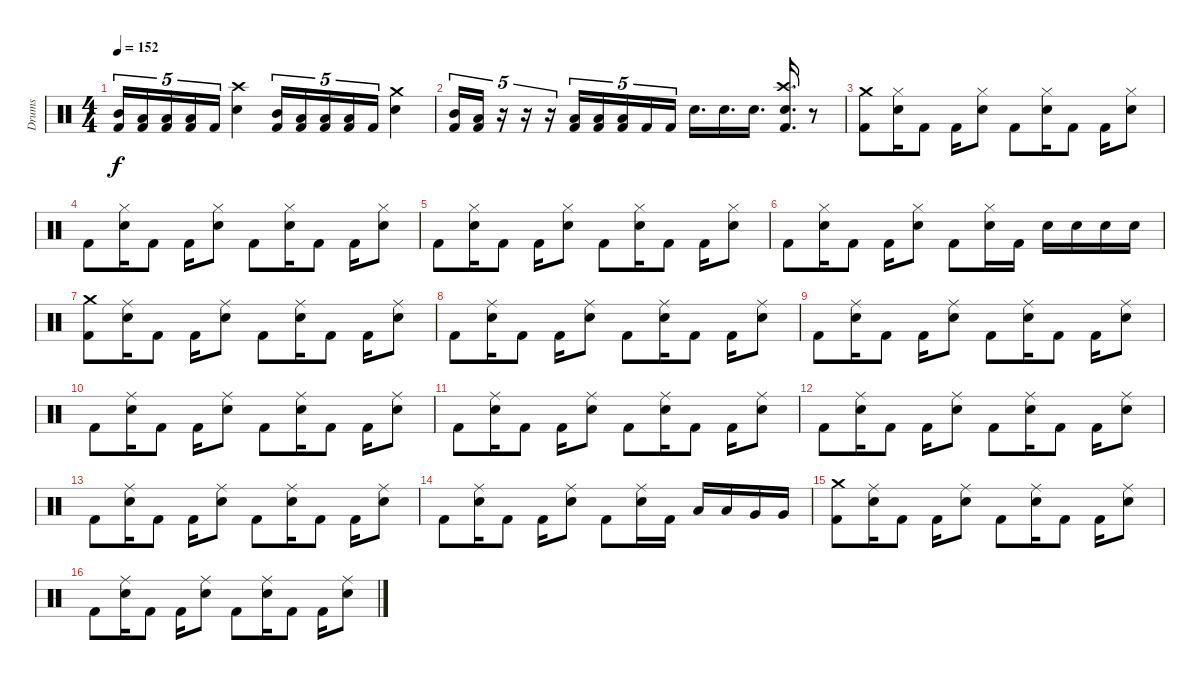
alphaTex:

\track ("Drums" "Drums") {instrument percussion}
\staff {score}
\articulation defaults
\ts (4 4)
\tempo 152
\clef neutral
\ks c
("Mid Tom (hit)" "Kick (hit) 2").16{tu (5 4) dy f} ("Low Tom (hit)" "Kick (hit) 2").16{tu (5 4)} ("Low Tom (hit)" "Kick (hit) 2").16{tu (5 4)} ("Low Tom (hit)" "Kick (hit) 2").16{tu (5 4)} "Kick (hit) 2".16{tu (5 4)} ("Crash high (hit)" "Snare (hit) 2").4 ("Mid Tom (hit)" "Kick (hit) 2").16{tu (5 4)} ("Low Tom (hit)" "Kick (hit) 2").16{tu (5 4)} ("Low Tom (hit)" "Kick (hit) 2").16{tu (5 4)} ("Low Tom (hit)" "Kick (hit) 2").16{tu (5 4)} "Kick (hit) 2".16{tu (5 4)} ("Crash medium (hit)" "Snare (hit) 2").4 |
("Mid Tom (hit)" "Kick (hit) 2").16{tu (5 4)} ("Low Tom (hit)" "Kick (hit) 2").16{tu (5 4)} r.16{tu (5 4)} r.16{tu (5 4)} r.16{tu (5 4)} ("Low Tom (hit)" "Kick (hit) 2").16{tu (5 4)} ("Low Tom (hit)" "Kick (hit) 2").16{tu (5 4)} ("Low Tom (hit)" "Kick (hit) 2").16{tu (5 4)} "Kick (hit) 2".16{tu (5 4)} "Kick (hit) 2".16{tu (5 4)} "Snare (hit) 2".16{d} "Snare (hit) 2".16{d} "Snare (hit) 2".16{d} ("Crash high (hit)" "Snare (hit) 2" "Kick (hit) 2").16{d} r.8 |
("Crash medium (hit)" "Kick (hit) 2").8 ("Hi-Hat (closed)" "Snare (hit) 2").16 "Kick (hit) 2".8 "Kick (hit) 2".16 ("Hi-Hat (closed)" "Snare (hit) 2").8 "Kick (hit) 2".8 ("Hi-Hat (closed)" "Snare (hit) 2").16 "Kick (hit) 2".8 "Kick (hit) 2".16 ("Hi-Hat (closed)" "Snare (hit) 2").8 |
"Kick (hit) 2".8 ("Hi-Hat (closed)" "Snare (hit) 2").16 "Kick (hit) 2".8 "Kick (hit) 2".16 ("Hi-Hat (closed)" "Snare (hit) 2").8 "Kick (hit) 2".8 ("Hi-Hat (closed)" "Snare (hit) 2").16 "Kick (hit) 2".8 "Kick (hit) 2".16 ("Hi-Hat (closed)" "Snare (hit) 2").8 |
"Kick (hit) 2".8 ("Hi-Hat (closed)" "Snare (hit) 2").16 "Kick (hit) 2".8 "Kick (hit) 2".16 ("Hi-Hat (closed)" "Snare (hit) 2").8 "Kick (hit) 2".8 ("Hi-Hat (closed)" "Snare (hit) 2").16 "Kick (hit) 2".8 "Kick (hit) 2".16 ("Hi-Hat (closed)" "Snare (hit) 2").8 |
"Kick (hit) 2".8 ("Hi-Hat (closed)" "Snare (hit) 2").16 "Kick (hit) 2".8 "Kick (hit) 2".16 ("Hi-Hat (closed)" "Snare (hit) 2").8 "Kick (hit) 2".8 ("Hi-Hat (closed)" "Snare (hit) 2").16 "Kick (hit) 2".16 "Snare (hit) 2".16 "Snare (hit) 2".16 "Snare (hit) 2".16 "Snare (hit) 2".16 |
("Crash medium (hit)" "Kick (hit) 2").8 ("Ride (middle)" "Snare (hit) 2").16 "Kick (hit) 2".8 "Kick (hit) 2".16 ("Ride (middle)" "Snare (hit) 2").8 "Kick (hit) 2".8 ("Ride (middle)" "Snare (hit) 2").16 "Kick (hit) 2".8 "Kick (hit) 2".16 ("Ride (middle)" "Snare (hit) 2").8 |
"Kick (hit) 2".8 ("Ride (middle)" "Snare (hit) 2").16 "Kick (hit) 2".8 "Kick (hit) 2".16 ("Ride (middle)" "Snare (hit) 2").8 "Kick (hit) 2".8 ("Ride (middle)" "Snare (hit) 2").16 "Kick (hit) 2".8 "Kick (hit) 2".16 ("Ride (middle)" "Snare (hit) 2").8 |
"Kick (hit) 2".8 ("Ride (middle)" "Snare (hit) 2").16 "Kick (hit) 2".8 "Kick (hit) 2".16 ("Ride (middle)" "Snare (hit) 2").8 "Kick (hit) 2".8 ("Ride (middle)" "Snare (hit) 2").16 "Kick (hit) 2".8 "Kick (hit) 2".16 ("Ride (middle)" "Snare (hit) 2").8 |
"Kick (hit) 2".8 ("Ride (middle)" "Snare (hit) 2").16 "Kick (hit) 2".8 "Kick (hit) 2".16 ("Ride (middle)" "Snare (hit) 2").8 "Kick (hit) 2".8 ("Ride (middle)" "Snare (hit) 2").16 "Kick (hit) 2".8 "Kick (hit) 2".16 ("Ride (middle)" "Snare (hit) 2").8 |
"Kick (hit) 2".8 ("Ride (middle)" "Snare (hit) 2").16 "Kick (hit) 2".8 "Kick (hit) 2".16 ("Ride (middle)" "Snare (hit) 2").8 "Kick (hit) 2".8 ("Ride (middle)" "Snare (hit) 2").16 "Kick (hit) 2".8 "Kick (hit) 2".16 ("Ride (middle)" "Snare (hit) 2").8 |
"Kick (hit) 2".8 ("Ride (middle)" "Snare (hit) 2").16 "Kick (hit) 2".8 "Kick (hit) 2".16 ("Ride (middle)" "Snare (hit) 2").8 "Kick (hit) 2".8 ("Ride (middle)" "Snare (hit) 2").16 "Kick (hit) 2".8 "Kick (hit) 2".16 ("Ride (middle)" "Snare (hit) 2").8 |
"Kick (hit) 2".8 ("Ride (middle)" "Snare (hit) 2").16 "Kick (hit) 2".8 "Kick (hit) 2".16 ("Ride (middle)" "Snare (hit) 2").8 "Kick (hit) 2".8 ("Ride (middle)" "Snare (hit) 2").16 "Kick (hit) 2".8 "Kick (hit) 2".16 ("Ride (middle)" "Snare (hit) 2").8 |
"Kick (hit) 2".8 ("Ride (middle)" "Snare (hit) 2").16 "Kick (hit) 2".8 "Kick (hit) 2".16 ("Ride (middle)" "Snare (hit) 2").8 "Kick (hit) 2".8 ("Ride (middle)" "Snare (hit) 2").16 "Kick (hit) 2".16 "Low Tom (hit)".16 "Low Tom (hit)".16 "Very Low Tom (hit)".16 "Very Low Tom (hit)".16 |
("Crash medium (hit)" "Kick (hit) 2").8 ("Ride (middle)" "Snare (hit) 2").16 "Kick (hit) 2".8 "Kick (hit) 2".16 ("Ride (middle)" "Snare (hit) 2").8 "Kick (hit) 2".8 ("Ride (middle)" "Snare (hit) 2").16 "Kick (hit) 2".8 "Kick (hit) 2".16 ("Ride (middle)" "Snare (hit) 2").8 |
"Kick (hit) 2".8 ("Ride (middle)" "Snare (hit) 2").16 "Kick (hit) 2".8 "Kick (hit) 2".16 ("Ride (middle)" "Snare (hit) 2").8 "Kick (hit) 2".8 ("Ride (middle)" "Snare (hit) 2").16 "Kick (hit) 2".8 "Kick (hit) 2".16 ("Ride (middle)" "Snare (hit) 2").8
